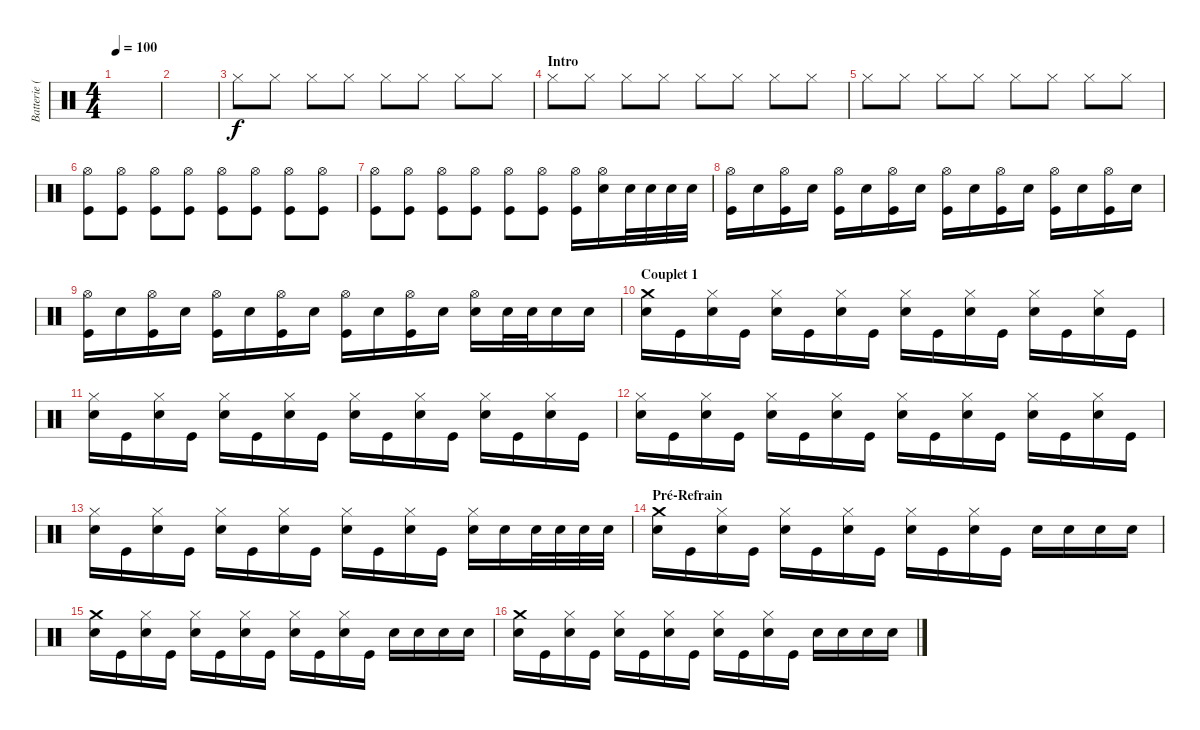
\track ("Batterie (Julien)" "Batterie (") {instrument percussion}
\staff {score}
\articulation defaults
\ts (4 4)
\tempo 100
\clef neutral
\ks c
|
|
"Hi-Hat (closed)".8 "Hi-Hat (closed)".8 "Hi-Hat (closed)".8 "Hi-Hat (closed)".8 "Hi-Hat (closed)".8 "Hi-Hat (closed)".8 "Hi-Hat (closed)".8 "Hi-Hat (closed)".8 |
\section ("" "Intro")
"Hi-Hat (closed)".8 "Hi-Hat (closed)".8 "Hi-Hat (closed)".8 "Hi-Hat (closed)".8 "Hi-Hat (closed)".8 "Hi-Hat (closed)".8 "Hi-Hat (closed)".8 "Hi-Hat (closed)".8 |
"Hi-Hat (closed)".8 "Hi-Hat (closed)".8 "Hi-Hat (closed)".8 "Hi-Hat (closed)".8 "Hi-Hat (closed)".8 "Hi-Hat (closed)".8 "Hi-Hat (closed)".8 "Hi-Hat (closed)".8 |
("Hi-Hat (open)" "Kick (hit)").8 ("Hi-Hat (open)" "Kick (hit)").8 ("Hi-Hat (open)" "Kick (hit)").8 ("Hi-Hat (open)" "Kick (hit)").8 ("Hi-Hat (open)" "Kick (hit)").8 ("Hi-Hat (open)" "Kick (hit)").8 ("Hi-Hat (open)" "Kick (hit)").8 ("Hi-Hat (open)" "Kick (hit)").8 |
("Hi-Hat (open)" "Kick (hit)").8 ("Hi-Hat (open)" "Kick (hit)").8 ("Hi-Hat (open)" "Kick (hit)").8 ("Hi-Hat (open)" "Kick (hit)").8 ("Hi-Hat (open)" "Kick (hit)").8 ("Hi-Hat (open)" "Kick (hit)").8 ("Hi-Hat (open)" "Kick (hit)").16 ("Hi-Hat (open)" "Electric Snare (hit)").16 "Electric Snare (hit)".32 "Electric Snare (hit)".32 "Electric Snare (hit)".32 "Electric Snare (hit)".32 |
("Hi-Hat (open)" "Kick (hit)").16 "Electric Snare (hit)".16 ("Hi-Hat (open)" "Kick (hit)").16 "Electric Snare (hit)".16 ("Hi-Hat (open)" "Kick (hit)").16 "Electric Snare (hit)".16 ("Hi-Hat (open)" "Kick (hit)").16 "Electric Snare (hit)".16 ("Hi-Hat (open)" "Kick (hit)").16 "Electric Snare (hit)".16 ("Hi-Hat (open)" "Kick (hit)").16 "Electric Snare (hit)".16 ("Hi-Hat (open)" "Kick (hit)").16 "Electric Snare (hit)".16 ("Hi-Hat (open)" "Kick (hit)").16 "Electric Snare (hit)".16 |
("Hi-Hat (open)" "Kick (hit)").16 "Electric Snare (hit)".16 ("Hi-Hat (open)" "Kick (hit)").16 "Electric Snare (hit)".16 ("Hi-Hat (open)" "Kick (hit)").16 "Electric Snare (hit)".16 ("Hi-Hat (open)" "Kick (hit)").16 "Electric Snare (hit)".16 ("Hi-Hat (open)" "Kick (hit)").16 "Electric Snare (hit)".16 ("Hi-Hat (open)" "Kick (hit)").16 "Electric Snare (hit)".16 ("Hi-Hat (open)" "Electric Snare (hit)").16 "Electric Snare (hit)".32 "Electric Snare (hit)".32 "Electric Snare (hit)".16 "Electric Snare (hit)".16 |
\section ("" "Couplet 1 ")
("Crash medium (hit)" "Electric Snare (hit)").16 "Kick (hit)".16 ("Hi-Hat (closed)" "Electric Snare (hit)").16 "Kick (hit)".16 ("Hi-Hat (closed)" "Electric Snare (hit)").16 "Kick (hit)".16 ("Hi-Hat (closed)" "Electric Snare (hit)").16 "Kick (hit)".16 ("Hi-Hat (closed)" "Electric Snare (hit)").16 "Kick (hit)".16 ("Hi-Hat (closed)" "Electric Snare (hit)").16 "Kick (hit)".16 ("Hi-Hat (closed)" "Electric Snare (hit)").16 "Kick (hit)".16 ("Hi-Hat (closed)" "Electric Snare (hit)").16 "Kick (hit)".16 |
("Hi-Hat (closed)" "Electric Snare (hit)").16 "Kick (hit)".16 ("Hi-Hat (closed)" "Electric Snare (hit)").16 "Kick (hit)".16 ("Hi-Hat (closed)" "Electric Snare (hit)").16 "Kick (hit)".16 ("Hi-Hat (closed)" "Electric Snare (hit)").16 "Kick (hit)".16 ("Hi-Hat (closed)" "Electric Snare (hit)").16 "Kick (hit)".16 ("Hi-Hat (closed)" "Electric Snare (hit)").16 "Kick (hit)".16 ("Hi-Hat (closed)" "Electric Snare (hit)").16 "Kick (hit)".16 ("Hi-Hat (closed)" "Electric Snare (hit)").16 "Kick (hit)".16 |
("Hi-Hat (closed)" "Electric Snare (hit)").16 "Kick (hit)".16 ("Hi-Hat (closed)" "Electric Snare (hit)").16 "Kick (hit)".16 ("Hi-Hat (closed)" "Electric Snare (hit)").16 "Kick (hit)".16 ("Hi-Hat (closed)" "Electric Snare (hit)").16 "Kick (hit)".16 ("Hi-Hat (closed)" "Electric Snare (hit)").16 "Kick (hit)".16 ("Hi-Hat (closed)" "Electric Snare (hit)").16 "Kick (hit)".16 ("Hi-Hat (closed)" "Electric Snare (hit)").16 "Kick (hit)".16 ("Hi-Hat (closed)" "Electric Snare (hit)").16 "Kick (hit)".16 |
("Hi-Hat (closed)" "Electric Snare (hit)").16 "Kick (hit)".16 ("Hi-Hat (closed)" "Electric Snare (hit)").16 "Kick (hit)".16 ("Hi-Hat (closed)" "Electric Snare (hit)").16 "Kick (hit)".16 ("Hi-Hat (closed)" "Electric Snare (hit)").16 "Kick (hit)".16 ("Hi-Hat (closed)" "Electric Snare (hit)").16 "Kick (hit)".16 ("Hi-Hat (closed)" "Electric Snare (hit)").16 "Kick (hit)".16 ("Hi-Hat (closed)" "Electric Snare (hit)").16 "Electric Snare (hit)".16 "Electric Snare (hit)".32 "Electric Snare (hit)".32 "Electric Snare (hit)".32 "Electric Snare (hit)".32 |
\section ("" "Pré-Refrain")
("Crash medium (hit)" "Electric Snare (hit)").16 "Kick (hit)".16 ("Hi-Hat (closed)" "Electric Snare (hit)").16 "Kick (hit)".16 ("Hi-Hat (closed)" "Electric Snare (hit)").16 "Kick (hit)".16 ("Hi-Hat (closed)" "Electric Snare (hit)").16 "Kick (hit)".16 ("Hi-Hat (closed)" "Electric Snare (hit)").16 "Kick (hit)".16 ("Hi-Hat (closed)" "Electric Snare (hit)").16 "Kick (hit)".16 "Electric Snare (hit)".16 "Electric Snare (hit)".16 "Electric Snare (hit)".16 "Electric Snare (hit)".16 |
("Crash medium (hit)" "Electric Snare (hit)").16 "Kick (hit)".16 ("Hi-Hat (closed)" "Electric Snare (hit)").16 "Kick (hit)".16 ("Hi-Hat (closed)" "Electric Snare (hit)").16 "Kick (hit)".16 ("Hi-Hat (closed)" "Electric Snare (hit)").16 "Kick (hit)".16 ("Hi-Hat (closed)" "Electric Snare (hit)").16 "Kick (hit)".16 ("Hi-Hat (closed)" "Electric Snare (hit)").16 "Kick (hit)".16 "Electric Snare (hit)".16 "Electric Snare (hit)".16 "Electric Snare (hit)".16 "Electric Snare (hit)".16 |
("Crash medium (hit)" "Electric Snare (hit)").16 "Kick (hit)".16 ("Hi-Hat (closed)" "Electric Snare (hit)").16 "Kick (hit)".16 ("Hi-Hat (closed)" "Electric Snare (hit)").16 "Kick (hit)".16 ("Hi-Hat (closed)" "Electric Snare (hit)").16 "Kick (hit)".16 ("Hi-Hat (closed)" "Electric Snare (hit)").16 "Kick (hit)".16 ("Hi-Hat (closed)" "Electric Snare (hit)").16 "Kick (hit)".16 "Electric Snare (hit)".16 "Electric Snare (hit)".16 "Electric Snare (hit)".16 "Electric Snare (hit)".16
